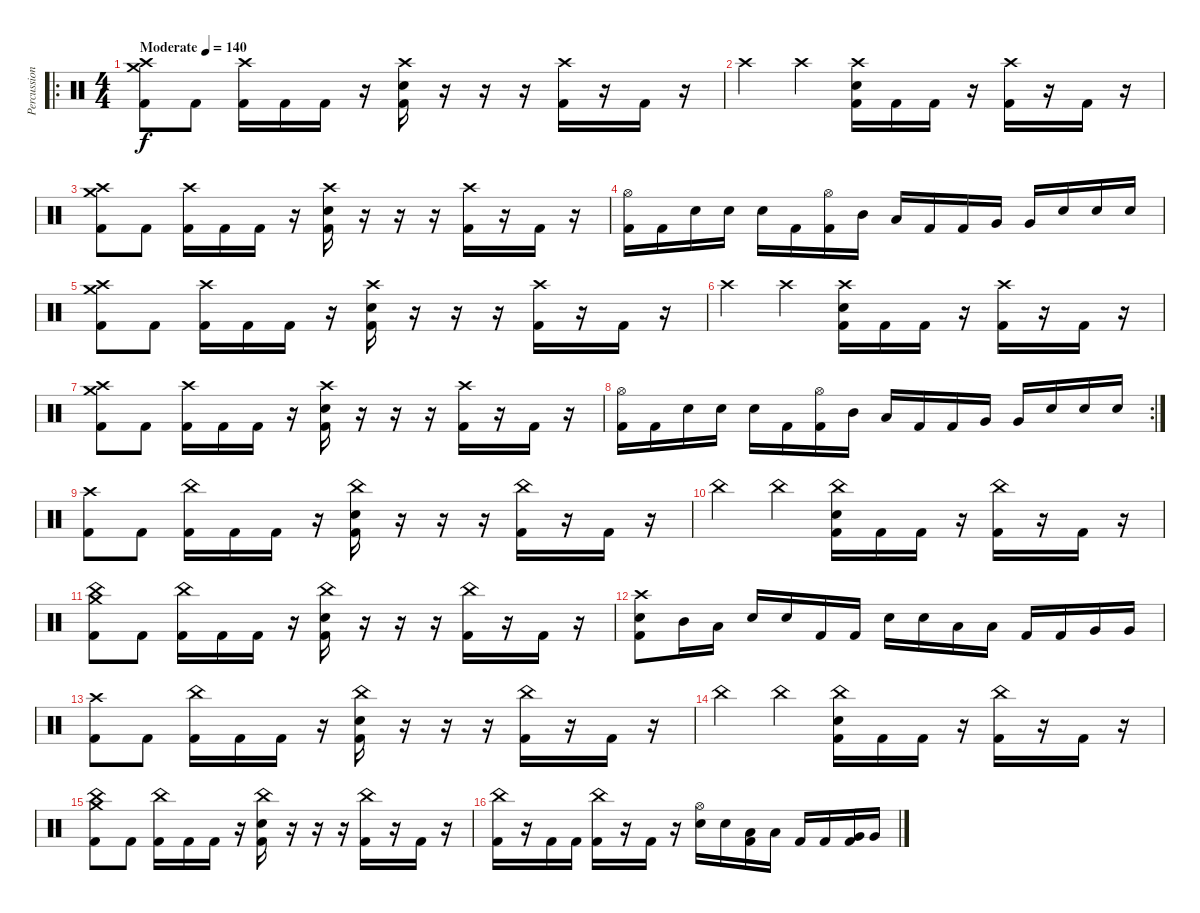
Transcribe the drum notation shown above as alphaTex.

\track ("Percussion" "Percussion") {instrument percussion}
\staff {score}
\articulation defaults
\ro
\ts (4 4)
\tempo (140 "Moderate")
\clef neutral
\ks c
("Crash high (hit)" "Crash medium (hit)" "Kick (hit) 2").8{dy f} "Kick (hit) 2".8 ("Crash high (hit)" "Kick (hit) 2").16 "Kick (hit) 2".16 "Kick (hit) 2".16 r.16 ("Crash high (hit)" "Electric Snare (hit)" "Kick (hit) 2").16 r.16 r.16 r.16 ("Crash high (hit)" "Kick (hit) 2").16 r.16 "Kick (hit) 2".16 r.16 |
"Crash high (hit)".4 "Crash high (hit)".4 ("Crash high (hit)" "Electric Snare (hit)" "Kick (hit) 2").16 "Kick (hit) 2".16 "Kick (hit) 2".16 r.16 ("Crash high (hit)" "Kick (hit) 2").16 r.16 "Kick (hit) 2".16 r.16 |
("Crash high (hit)" "Crash medium (hit)" "Kick (hit) 2").8 "Kick (hit) 2".8 ("Crash high (hit)" "Kick (hit) 2").16 "Kick (hit) 2".16 "Kick (hit) 2".16 r.16 ("Crash high (hit)" "Electric Snare (hit)" "Kick (hit) 2").16 r.16 r.16 r.16 ("Crash high (hit)" "Kick (hit) 2").16 r.16 "Kick (hit) 2".16 r.16 |
("Hi-Hat (open)" "Kick (hit) 2").16 "Kick (hit) 2".16 "Electric Snare (hit)".16 "Electric Snare (hit)".16 "Electric Snare (hit)".16 "Kick (hit) 2".16 ("Hi-Hat (open)" "Kick (hit) 2").16 "Mid Tom (hit)".16 "Low Tom (hit)".16 "Kick (hit) 2".16 "Kick (hit) 2".16 "Very Low Tom (hit)".16 "Very Low Tom (hit)".16 "Electric Snare (hit)".16 "Electric Snare (hit)".16 "Electric Snare (hit)".16 |
("Crash high (hit)" "Crash medium (hit)" "Kick (hit) 2").8 "Kick (hit) 2".8 ("Crash high (hit)" "Kick (hit) 2").16 "Kick (hit) 2".16 "Kick (hit) 2".16 r.16 ("Crash high (hit)" "Electric Snare (hit)" "Kick (hit) 2").16 r.16 r.16 r.16 ("Crash high (hit)" "Kick (hit) 2").16 r.16 "Kick (hit) 2".16 r.16 |
"Crash high (hit)".4 "Crash high (hit)".4 ("Crash high (hit)" "Electric Snare (hit)" "Kick (hit) 2").16 "Kick (hit) 2".16 "Kick (hit) 2".16 r.16 ("Crash high (hit)" "Kick (hit) 2").16 r.16 "Kick (hit) 2".16 r.16 |
("Crash high (hit)" "Crash medium (hit)" "Kick (hit) 2").8 "Kick (hit) 2".8 ("Crash high (hit)" "Kick (hit) 2").16 "Kick (hit) 2".16 "Kick (hit) 2".16 r.16 ("Crash high (hit)" "Electric Snare (hit)" "Kick (hit) 2").16 r.16 r.16 r.16 ("Crash high (hit)" "Kick (hit) 2").16 r.16 "Kick (hit) 2".16 r.16 |
\rc 2
("Hi-Hat (open)" "Kick (hit) 2").16 "Kick (hit) 2".16 "Electric Snare (hit)".16 "Electric Snare (hit)".16 "Electric Snare (hit)".16 "Kick (hit) 2".16 ("Hi-Hat (open)" "Kick (hit) 2").16 "Mid Tom (hit)".16 "Low Tom (hit)".16 "Kick (hit) 2".16 "Kick (hit) 2".16 "Very Low Tom (hit)".16 "Very Low Tom (hit)".16 "Electric Snare (hit)".16 "Electric Snare (hit)".16 "Electric Snare (hit)".16 |
("Crash high (hit)" "Kick (hit) 2").8 "Kick (hit) 2".8 ("China (hit)" "Kick (hit) 2").16 "Kick (hit) 2".16 "Kick (hit) 2".16 r.16 ("China (hit)" "Electric Snare (hit)" "Kick (hit) 2").16 r.16 r.16 r.16 ("China (hit)" "Kick (hit) 2").16 r.16 "Kick (hit) 2".16 r.16 |
"China (hit)".4 "China (hit)".4 ("China (hit)" "Electric Snare (hit)" "Kick (hit) 2").16 "Kick (hit) 2".16 "Kick (hit) 2".16 r.16 ("China (hit)" "Kick (hit) 2").16 r.16 "Kick (hit) 2".16 r.16 |
("China (hit)" "Crash medium (hit)" "Kick (hit) 2").8 "Kick (hit) 2".8 ("China (hit)" "Kick (hit) 2").16 "Kick (hit) 2".16 "Kick (hit) 2".16 r.16 ("China (hit)" "Electric Snare (hit)" "Kick (hit) 2").16 r.16 r.16 r.16 ("China (hit)" "Kick (hit) 2").16 r.16 "Kick (hit) 2".16 r.16 |
("Crash high (hit)" "Electric Snare (hit)" "Kick (hit) 2").8 "Mid Tom (hit)".16 "Low Tom (hit)".16 "Electric Snare (hit)".16 "Electric Snare (hit)".16 "Kick (hit) 2".16 "Kick (hit) 2".16 "Electric Snare (hit)".16 "Electric Snare (hit)".16 "Low Tom (hit)".16 "Low Tom (hit)".16 "Kick (hit) 2".16 "Kick (hit) 2".16 "Very Low Tom (hit)".16 "Very Low Tom (hit)".16 |
("Crash high (hit)" "Kick (hit) 2").8 "Kick (hit) 2".8 ("China (hit)" "Kick (hit) 2").16 "Kick (hit) 2".16 "Kick (hit) 2".16 r.16 ("China (hit)" "Electric Snare (hit)" "Kick (hit) 2").16 r.16 r.16 r.16 ("China (hit)" "Kick (hit) 2").16 r.16 "Kick (hit) 2".16 r.16 |
"China (hit)".4 "China (hit)".4 ("China (hit)" "Electric Snare (hit)" "Kick (hit) 2").16 "Kick (hit) 2".16 "Kick (hit) 2".16 r.16 ("China (hit)" "Kick (hit) 2").16 r.16 "Kick (hit) 2".16 r.16 |
("China (hit)" "Crash medium (hit)" "Kick (hit) 2").8 "Kick (hit) 2".8 ("China (hit)" "Kick (hit) 2").16 "Kick (hit) 2".16 "Kick (hit) 2".16 r.16 ("China (hit)" "Electric Snare (hit)" "Kick (hit) 2").16 r.16 r.16 r.16 ("China (hit)" "Kick (hit) 2").16 r.16 "Kick (hit) 2".16 r.16 |
("China (hit)" "Kick (hit) 2").16 r.16 "Kick (hit) 2".16 "Kick (hit) 2".16 ("China (hit)" "Kick (hit) 2").16 r.16 "Kick (hit) 2".16 r.16 ("Hi-Hat (open)" "Electric Snare (hit)").16 "Electric Snare (hit)".16 ("Low Tom (hit)" "Kick (hit) 2").16 "Low Tom (hit)".16 "Kick (hit) 2".16 "Kick (hit) 2".16 ("Very Low Tom (hit)" "Kick (hit) 2").16 "Very Low Tom (hit)".16
